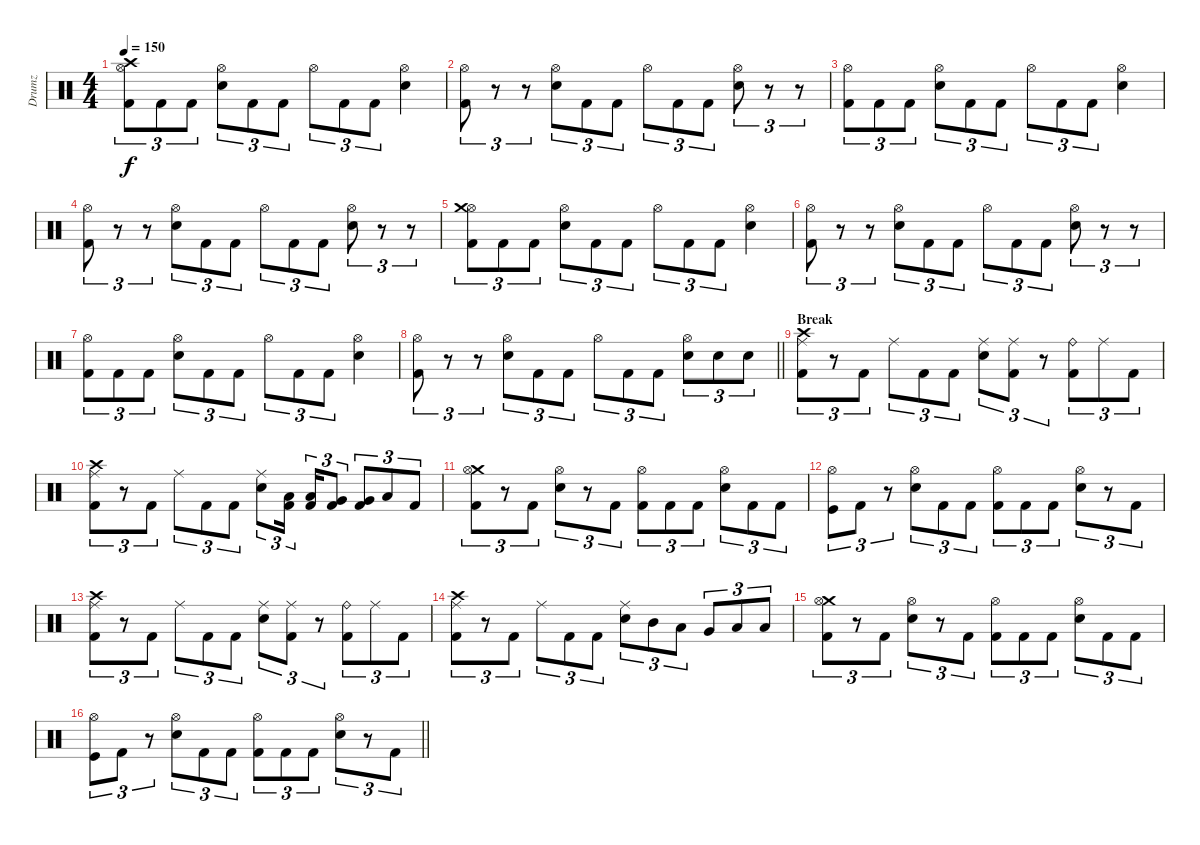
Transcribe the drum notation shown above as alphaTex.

\track ("Drumz" "Drumz") {instrument percussion}
\staff {score}
\articulation defaults
\ts (4 4)
\tempo 150
\clef neutral
\ks c
("Hi-Hat (open)" "Kick (hit) 2" "Crash high (hit)").8{tu (3 2) dy f} "Kick (hit) 2".8{tu (3 2)} "Kick (hit) 2".8{tu (3 2)} ("Hi-Hat (open)" "Snare (hit) 2").8{tu (3 2)} "Kick (hit) 2".8{tu (3 2)} "Kick (hit) 2".8{tu (3 2)} "Hi-Hat (open)".8{tu (3 2)} "Kick (hit) 2".8{tu (3 2)} "Kick (hit) 2".8{tu (3 2)} ("Hi-Hat (open)" "Snare (hit) 2").4 |
("Hi-Hat (open)" "Kick (hit) 2").8{tu (3 2)} r.8{tu (3 2)} r.8{tu (3 2)} ("Hi-Hat (open)" "Snare (hit) 2").8{tu (3 2)} "Kick (hit) 2".8{tu (3 2)} "Kick (hit) 2".8{tu (3 2)} "Hi-Hat (open)".8{tu (3 2)} "Kick (hit) 2".8{tu (3 2)} "Kick (hit) 2".8{tu (3 2)} ("Hi-Hat (open)" "Snare (hit) 2").8{tu (3 2)} r.8{tu (3 2)} r.8{tu (3 2)} |
("Hi-Hat (open)" "Kick (hit) 2").8{tu (3 2)} "Kick (hit) 2".8{tu (3 2)} "Kick (hit) 2".8{tu (3 2)} ("Hi-Hat (open)" "Snare (hit) 2").8{tu (3 2)} "Kick (hit) 2".8{tu (3 2)} "Kick (hit) 2".8{tu (3 2)} "Hi-Hat (open)".8{tu (3 2)} "Kick (hit) 2".8{tu (3 2)} "Kick (hit) 2".8{tu (3 2)} ("Hi-Hat (open)" "Snare (hit) 2").4 |
("Hi-Hat (open)" "Kick (hit) 2").8{tu (3 2)} r.8{tu (3 2)} r.8{tu (3 2)} ("Hi-Hat (open)" "Snare (hit) 2").8{tu (3 2)} "Kick (hit) 2".8{tu (3 2)} "Kick (hit) 2".8{tu (3 2)} "Hi-Hat (open)".8{tu (3 2)} "Kick (hit) 2".8{tu (3 2)} "Kick (hit) 2".8{tu (3 2)} ("Hi-Hat (open)" "Snare (hit) 2").8{tu (3 2)} r.8{tu (3 2)} r.8{tu (3 2)} |
("Kick (hit) 2" "Hi-Hat (open)" "Crash medium (hit)").8{tu (3 2)} "Kick (hit) 2".8{tu (3 2)} "Kick (hit) 2".8{tu (3 2)} ("Hi-Hat (open)" "Snare (hit) 2").8{tu (3 2)} "Kick (hit) 2".8{tu (3 2)} "Kick (hit) 2".8{tu (3 2)} "Hi-Hat (open)".8{tu (3 2)} "Kick (hit) 2".8{tu (3 2)} "Kick (hit) 2".8{tu (3 2)} ("Hi-Hat (open)" "Snare (hit) 2").4 |
("Hi-Hat (open)" "Kick (hit) 2").8{tu (3 2)} r.8{tu (3 2)} r.8{tu (3 2)} ("Hi-Hat (open)" "Snare (hit) 2").8{tu (3 2)} "Kick (hit) 2".8{tu (3 2)} "Kick (hit) 2".8{tu (3 2)} "Hi-Hat (open)".8{tu (3 2)} "Kick (hit) 2".8{tu (3 2)} "Kick (hit) 2".8{tu (3 2)} ("Hi-Hat (open)" "Snare (hit) 2").8{tu (3 2)} r.8{tu (3 2)} r.8{tu (3 2)} |
("Hi-Hat (open)" "Kick (hit) 2").8{tu (3 2)} "Kick (hit) 2".8{tu (3 2)} "Kick (hit) 2".8{tu (3 2)} ("Hi-Hat (open)" "Snare (hit) 2").8{tu (3 2)} "Kick (hit) 2".8{tu (3 2)} "Kick (hit) 2".8{tu (3 2)} "Hi-Hat (open)".8{tu (3 2)} "Kick (hit) 2".8{tu (3 2)} "Kick (hit) 2".8{tu (3 2)} ("Hi-Hat (open)" "Snare (hit) 2").4 |
\barLineRight lightlight
("Hi-Hat (open)" "Kick (hit) 2").8{tu (3 2)} r.8{tu (3 2)} r.8{tu (3 2)} ("Hi-Hat (open)" "Snare (hit) 2").8{tu (3 2)} "Kick (hit) 2".8{tu (3 2)} "Kick (hit) 2".8{tu (3 2)} "Hi-Hat (open)".8{tu (3 2)} "Kick (hit) 2".8{tu (3 2)} "Kick (hit) 2".8{tu (3 2)} ("Hi-Hat (open)" "Snare (hit) 2").8{tu (3 2)} "Snare (hit) 2".8{tu (3 2)} "Snare (hit) 2".8{tu (3 2)} |
\section ("" "Break")
("Kick (hit) 2" "Crash high (hit)" "Ride (middle)").8{tu (3 2)} r.8{tu (3 2)} "Kick (hit) 2".8{tu (3 2)} "Ride (middle)".8{tu (3 2)} "Kick (hit) 2".8{tu (3 2)} "Kick (hit) 2".8{tu (3 2)} ("Snare (hit) 2" "Ride (middle)").8{tu (3 2)} ("Kick (hit) 2" "Ride (middle)").8{tu (3 2)} r.8{tu (3 2)} ("Kick (hit) 2" "Ride (bell)").8{tu (3 2)} "Ride (middle)".8{tu (3 2)} "Kick (hit) 2".8{tu (3 2)} |
("Kick (hit) 2" "Crash high (hit)" "Ride (middle)").8{tu (3 2)} r.8{tu (3 2)} "Kick (hit) 2".8{tu (3 2)} "Ride (middle)".8{tu (3 2)} "Kick (hit) 2".8{tu (3 2)} "Kick (hit) 2".8{tu (3 2)} ("Snare (hit) 2" "Ride (middle)").8{tu (3 2)} ("Kick (hit) 2" "Low Tom (hit)").16{tu (3 2) beam splitsecondary} ("Kick (hit) 2" "Low Tom (hit)").16{tu (3 2)} ("Kick (hit) 2" "Very Low Tom (hit)").8{tu (3 2)} ("Kick (hit) 2" "Very Low Tom (hit)").8{tu (3 2)} "Low Floor Tom (hit)".8{tu (3 2)} "Kick (hit) 2".8{tu (3 2)} |
("Crash medium (hit)" "Hi-Hat (open)" "Kick (hit) 2").8{tu (3 2)} r.8{tu (3 2)} "Kick (hit) 2".8{tu (3 2)} ("Hi-Hat (open)" "Snare (hit) 2").8{tu (3 2)} r.8{tu (3 2)} "Kick (hit) 2".8{tu (3 2)} ("Kick (hit) 2" "Hi-Hat (open)").8{tu (3 2)} "Kick (hit) 2".8{tu (3 2)} "Kick (hit) 2".8{tu (3 2)} ("Hi-Hat (open)" "Snare (hit) 2").8{tu (3 2)} "Kick (hit) 2".8{tu (3 2)} "Kick (hit) 2".8{tu (3 2)} |
("Kick (hit)" "Hi-Hat (open)").8{tu (3 2)} "Kick (hit) 2".8{tu (3 2)} r.8{tu (3 2)} ("Hi-Hat (open)" "Snare (hit) 2").8{tu (3 2)} "Kick (hit) 2".8{tu (3 2)} "Kick (hit) 2".8{tu (3 2)} ("Kick (hit) 2" "Hi-Hat (open)").8{tu (3 2)} "Kick (hit) 2".8{tu (3 2)} "Kick (hit) 2".8{tu (3 2)} ("Hi-Hat (open)" "Snare (hit) 2").8{tu (3 2)} r.8{tu (3 2)} "Kick (hit) 2".8{tu (3 2)} |
("Kick (hit) 2" "Crash high (hit)" "Ride (middle)").8{tu (3 2)} r.8{tu (3 2)} "Kick (hit) 2".8{tu (3 2)} "Ride (middle)".8{tu (3 2)} "Kick (hit) 2".8{tu (3 2)} "Kick (hit) 2".8{tu (3 2)} ("Snare (hit) 2" "Ride (middle)").8{tu (3 2)} ("Kick (hit) 2" "Ride (middle)").8{tu (3 2)} r.8{tu (3 2)} ("Kick (hit) 2" "Ride (bell)").8{tu (3 2)} "Ride (middle)".8{tu (3 2)} "Kick (hit) 2".8{tu (3 2)} |
("Kick (hit) 2" "Crash high (hit)" "Ride (middle)").8{tu (3 2)} r.8{tu (3 2)} "Kick (hit) 2".8{tu (3 2)} "Ride (middle)".8{tu (3 2)} "Kick (hit) 2".8{tu (3 2)} "Kick (hit) 2".8{tu (3 2)} ("Snare (hit) 2" "Ride (middle)").8{tu (3 2)} "Mid Tom (hit)".8{tu (3 2)} "Low Tom (hit)".8{tu (3 2)} "Very Low Tom (hit)".8{tu (3 2)} "Low Floor Tom (hit)".8{tu (3 2)} "Low Floor Tom (hit)".8{tu (3 2)} |
("Crash medium (hit)" "Hi-Hat (open)" "Kick (hit) 2").8{tu (3 2)} r.8{tu (3 2)} "Kick (hit) 2".8{tu (3 2)} ("Hi-Hat (open)" "Snare (hit) 2").8{tu (3 2)} r.8{tu (3 2)} "Kick (hit) 2".8{tu (3 2)} ("Kick (hit) 2" "Hi-Hat (open)").8{tu (3 2)} "Kick (hit) 2".8{tu (3 2)} "Kick (hit) 2".8{tu (3 2)} ("Hi-Hat (open)" "Snare (hit) 2").8{tu (3 2)} "Kick (hit) 2".8{tu (3 2)} "Kick (hit) 2".8{tu (3 2)} |
\barLineRight lightlight
("Kick (hit)" "Hi-Hat (open)").8{tu (3 2)} "Kick (hit) 2".8{tu (3 2)} r.8{tu (3 2)} ("Hi-Hat (open)" "Snare (hit) 2").8{tu (3 2)} "Kick (hit) 2".8{tu (3 2)} "Kick (hit) 2".8{tu (3 2)} ("Kick (hit) 2" "Hi-Hat (open)").8{tu (3 2)} "Kick (hit) 2".8{tu (3 2)} "Kick (hit) 2".8{tu (3 2)} ("Hi-Hat (open)" "Snare (hit) 2").8{tu (3 2)} r.8{tu (3 2)} "Kick (hit) 2".8{tu (3 2)}
